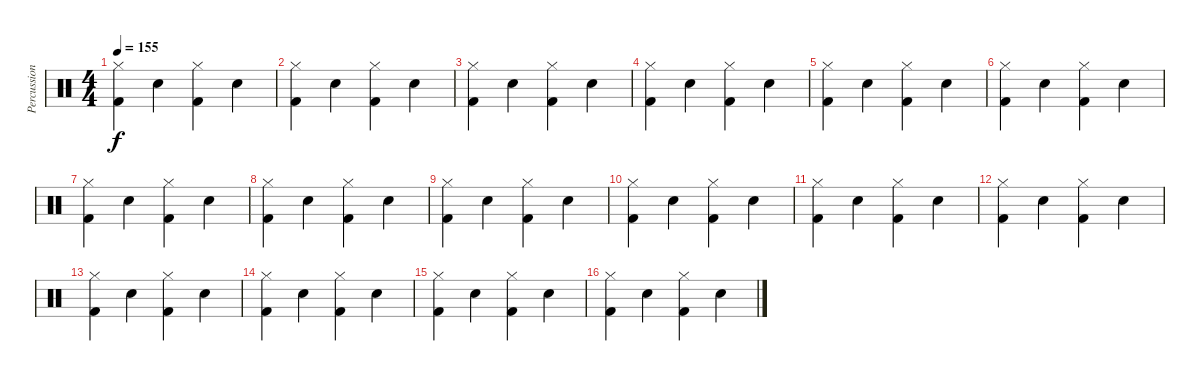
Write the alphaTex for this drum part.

\track ("Percussion" "Percussion") {instrument percussion}
\staff {score}
\articulation defaults
\ts (4 4)
\tempo 155
\clef neutral
\ks c
("Hi-Hat (closed)" "Kick (hit) 2").4{dy f} "Electric Snare (hit)".4 ("Hi-Hat (closed)" "Kick (hit) 2").4 "Electric Snare (hit)".4 |
("Hi-Hat (closed)" "Kick (hit) 2").4 "Electric Snare (hit)".4 ("Hi-Hat (closed)" "Kick (hit) 2").4 "Electric Snare (hit)".4 |
("Hi-Hat (closed)" "Kick (hit) 2").4 "Electric Snare (hit)".4 ("Hi-Hat (closed)" "Kick (hit) 2").4 "Electric Snare (hit)".4 |
("Hi-Hat (closed)" "Kick (hit) 2").4 "Electric Snare (hit)".4 ("Hi-Hat (closed)" "Kick (hit) 2").4 "Electric Snare (hit)".4 |
("Hi-Hat (closed)" "Kick (hit) 2").4 "Electric Snare (hit)".4 ("Hi-Hat (closed)" "Kick (hit) 2").4 "Electric Snare (hit)".4 |
("Hi-Hat (closed)" "Kick (hit) 2").4 "Electric Snare (hit)".4 ("Hi-Hat (closed)" "Kick (hit) 2").4 "Electric Snare (hit)".4 |
("Hi-Hat (closed)" "Kick (hit) 2").4 "Electric Snare (hit)".4 ("Hi-Hat (closed)" "Kick (hit) 2").4 "Electric Snare (hit)".4 |
("Hi-Hat (closed)" "Kick (hit) 2").4 "Electric Snare (hit)".4 ("Hi-Hat (closed)" "Kick (hit) 2").4 "Electric Snare (hit)".4 |
("Hi-Hat (closed)" "Kick (hit) 2").4 "Electric Snare (hit)".4 ("Hi-Hat (closed)" "Kick (hit) 2").4 "Electric Snare (hit)".4 |
("Hi-Hat (closed)" "Kick (hit) 2").4 "Electric Snare (hit)".4 ("Hi-Hat (closed)" "Kick (hit) 2").4 "Electric Snare (hit)".4 |
("Hi-Hat (closed)" "Kick (hit) 2").4 "Electric Snare (hit)".4 ("Hi-Hat (closed)" "Kick (hit) 2").4 "Electric Snare (hit)".4 |
("Hi-Hat (closed)" "Kick (hit) 2").4 "Electric Snare (hit)".4 ("Hi-Hat (closed)" "Kick (hit) 2").4 "Electric Snare (hit)".4 |
("Hi-Hat (closed)" "Kick (hit) 2").4 "Electric Snare (hit)".4 ("Hi-Hat (closed)" "Kick (hit) 2").4 "Electric Snare (hit)".4 |
("Hi-Hat (closed)" "Kick (hit) 2").4 "Electric Snare (hit)".4 ("Hi-Hat (closed)" "Kick (hit) 2").4 "Electric Snare (hit)".4 |
("Hi-Hat (closed)" "Kick (hit) 2").4 "Electric Snare (hit)".4 ("Hi-Hat (closed)" "Kick (hit) 2").4 "Electric Snare (hit)".4 |
("Hi-Hat (closed)" "Kick (hit) 2").4 "Electric Snare (hit)".4 ("Hi-Hat (closed)" "Kick (hit) 2").4 "Electric Snare (hit)".4
